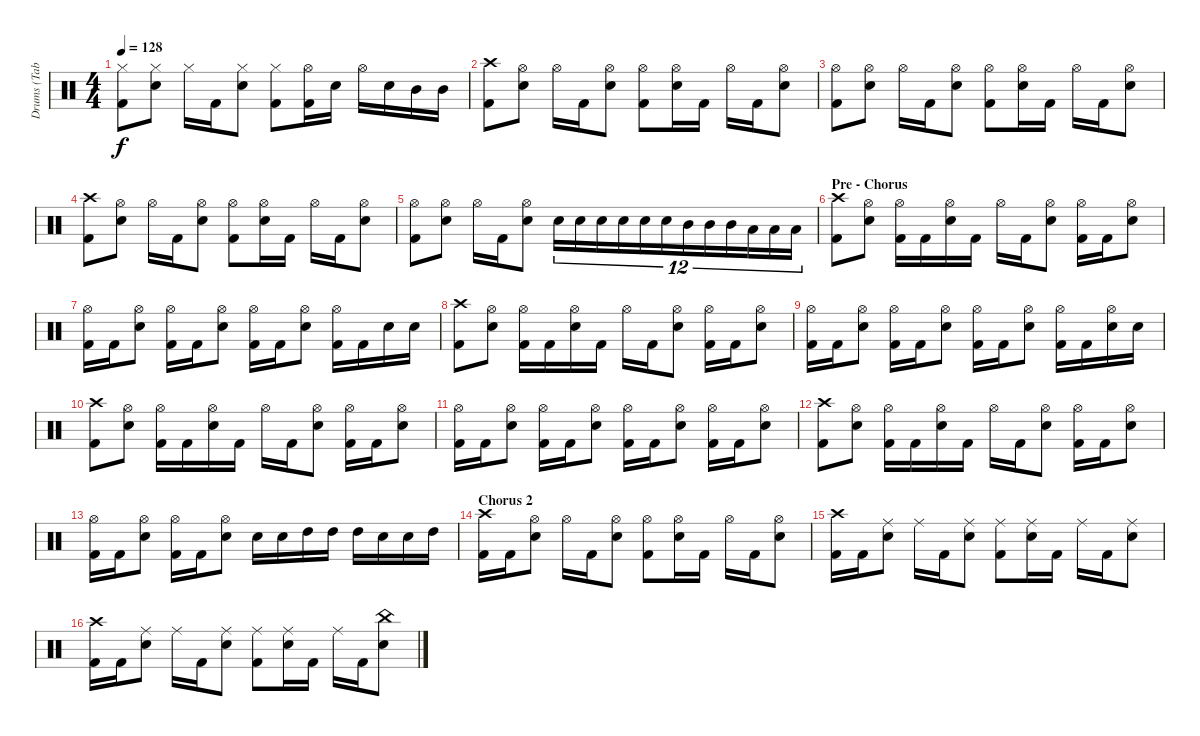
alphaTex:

\track ("Drums (Tabbed by: Leonardo_codev)" "Drums (Tab") {instrument percussion}
\staff {score}
\articulation defaults
\ts (4 4)
\tempo 128
\clef neutral
\ks c
("Hi-Hat (closed)" "Kick (hit) 2").8{dy f} ("Hi-Hat (closed)" "Electric Snare (hit)").8 "Hi-Hat (closed)".16 "Kick (hit) 2".16 ("Hi-Hat (closed)" "Electric Snare (hit)").8 ("Hi-Hat (closed)" "Kick (hit) 2").8 ("Hi-Hat (open)" "Kick (hit) 2").16 "Electric Snare (hit)".16 "Hi-Hat (open)".16 "Electric Snare (hit)".16 "Mid Tom (hit)".16 "Mid Tom (hit)".16 |
("Crash high (hit)" "Kick (hit) 2").8 ("Hi-Hat (open)" "Electric Snare (hit)").8 "Hi-Hat (open)".16 "Kick (hit) 2".16 ("Hi-Hat (open)" "Electric Snare (hit)").8 ("Hi-Hat (open)" "Kick (hit) 2").8 ("Hi-Hat (open)" "Electric Snare (hit)").16 "Kick (hit) 2".16 "Hi-Hat (open)".16 "Kick (hit) 2".16 ("Hi-Hat (open)" "Electric Snare (hit)").8 |
("Hi-Hat (open)" "Kick (hit) 2").8 ("Hi-Hat (open)" "Electric Snare (hit)").8 "Hi-Hat (open)".16 "Kick (hit) 2".16 ("Hi-Hat (open)" "Electric Snare (hit)").8 ("Hi-Hat (open)" "Kick (hit) 2").8 ("Hi-Hat (open)" "Electric Snare (hit)").16 "Kick (hit) 2".16 "Hi-Hat (open)".16 "Kick (hit) 2".16 ("Hi-Hat (open)" "Electric Snare (hit)").8 |
("Crash high (hit)" "Kick (hit) 2").8 ("Hi-Hat (open)" "Electric Snare (hit)").8 "Hi-Hat (open)".16 "Kick (hit) 2".16 ("Hi-Hat (open)" "Electric Snare (hit)").8 ("Hi-Hat (open)" "Kick (hit) 2").8 ("Hi-Hat (open)" "Electric Snare (hit)").16 "Kick (hit) 2".16 "Hi-Hat (open)".16 "Kick (hit) 2".16 ("Hi-Hat (open)" "Electric Snare (hit)").8 |
("Hi-Hat (open)" "Kick (hit) 2").8 ("Hi-Hat (open)" "Electric Snare (hit)").8 "Hi-Hat (open)".16 "Kick (hit) 2".16 ("Hi-Hat (open)" "Electric Snare (hit)").8 "Electric Snare (hit)".16{tu (12 8)} "Electric Snare (hit)".16{tu (12 8)} "Electric Snare (hit)".16{tu (12 8)} "Electric Snare (hit)".16{tu (12 8)} "Electric Snare (hit)".16{tu (12 8)} "Electric Snare (hit)".16{tu (12 8)} "Mid Tom (hit)".16{tu (12 8)} "Mid Tom (hit)".16{tu (12 8)} "Mid Tom (hit)".16{tu (12 8)} "Low Tom (hit)".16{tu (12 8)} "Low Tom (hit)".16{tu (12 8)} "Low Tom (hit)".16{tu (12 8)} |
\section ("" "Pre - Chorus")
("Crash high (hit)" "Kick (hit) 2").8 ("Hi-Hat (open)" "Electric Snare (hit)").8 ("Hi-Hat (open)" "Kick (hit) 2").16 "Kick (hit) 2".16 ("Hi-Hat (open)" "Electric Snare (hit)").16 "Kick (hit) 2".16 "Hi-Hat (open)".16 "Kick (hit) 2".16 ("Hi-Hat (open)" "Electric Snare (hit)").8 ("Hi-Hat (open)" "Kick (hit) 2").16 "Kick (hit) 2".16 ("Hi-Hat (open)" "Electric Snare (hit)").8 |
("Hi-Hat (open)" "Kick (hit) 2").16 "Kick (hit) 2".16 ("Hi-Hat (open)" "Electric Snare (hit)").8 ("Hi-Hat (open)" "Kick (hit) 2").16 "Kick (hit) 2".16 ("Hi-Hat (open)" "Electric Snare (hit)").8 ("Hi-Hat (open)" "Kick (hit) 2").16 "Kick (hit) 2".16 ("Hi-Hat (open)" "Electric Snare (hit)").8 ("Hi-Hat (open)" "Kick (hit) 2").16 "Kick (hit) 2".16 "Electric Snare (hit)".16 "Electric Snare (hit)".16 |
("Crash high (hit)" "Kick (hit) 2").8 ("Hi-Hat (open)" "Electric Snare (hit)").8 ("Hi-Hat (open)" "Kick (hit) 2").16 "Kick (hit) 2".16 ("Hi-Hat (open)" "Electric Snare (hit)").16 "Kick (hit) 2".16 "Hi-Hat (open)".16 "Kick (hit) 2".16 ("Hi-Hat (open)" "Electric Snare (hit)").8 ("Hi-Hat (open)" "Kick (hit) 2").16 "Kick (hit) 2".16 ("Hi-Hat (open)" "Electric Snare (hit)").8 |
("Hi-Hat (open)" "Kick (hit) 2").16 "Kick (hit) 2".16 ("Hi-Hat (open)" "Electric Snare (hit)").8 ("Hi-Hat (open)" "Kick (hit) 2").16 "Kick (hit) 2".16 ("Hi-Hat (open)" "Electric Snare (hit)").8 ("Hi-Hat (open)" "Kick (hit) 2").16 "Kick (hit) 2".16 ("Hi-Hat (open)" "Electric Snare (hit)").8 ("Hi-Hat (open)" "Kick (hit) 2").16 "Kick (hit) 2".16 ("Hi-Hat (open)" "Electric Snare (hit)").16 "Electric Snare (hit)".16 |
("Crash high (hit)" "Kick (hit) 2").8 ("Hi-Hat (open)" "Electric Snare (hit)").8 ("Hi-Hat (open)" "Kick (hit) 2").16 "Kick (hit) 2".16 ("Hi-Hat (open)" "Electric Snare (hit)").16 "Kick (hit) 2".16 "Hi-Hat (open)".16 "Kick (hit) 2".16 ("Hi-Hat (open)" "Electric Snare (hit)").8 ("Hi-Hat (open)" "Kick (hit) 2").16 "Kick (hit) 2".16 ("Hi-Hat (open)" "Electric Snare (hit)").8 |
("Hi-Hat (open)" "Kick (hit) 2").16 "Kick (hit) 2".16 ("Hi-Hat (open)" "Electric Snare (hit)").8 ("Hi-Hat (open)" "Kick (hit) 2").16 "Kick (hit) 2".16 ("Hi-Hat (open)" "Electric Snare (hit)").8 ("Hi-Hat (open)" "Kick (hit) 2").16 "Kick (hit) 2".16 ("Hi-Hat (open)" "Electric Snare (hit)").8 ("Hi-Hat (open)" "Kick (hit) 2").16 "Kick (hit) 2".16 ("Hi-Hat (open)" "Electric Snare (hit)").8 |
("Crash high (hit)" "Kick (hit) 2").8 ("Hi-Hat (open)" "Electric Snare (hit)").8 ("Hi-Hat (open)" "Kick (hit) 2").16 "Kick (hit) 2".16 ("Hi-Hat (open)" "Electric Snare (hit)").16 "Kick (hit) 2".16 "Hi-Hat (open)".16 "Kick (hit) 2".16 ("Hi-Hat (open)" "Electric Snare (hit)").8 ("Hi-Hat (open)" "Kick (hit) 2").16 "Kick (hit) 2".16 ("Hi-Hat (open)" "Electric Snare (hit)").8 |
("Hi-Hat (open)" "Kick (hit) 2").16 "Kick (hit) 2".16 ("Hi-Hat (open)" "Electric Snare (hit)").8 ("Hi-Hat (open)" "Kick (hit) 2").16 "Kick (hit) 2".16 ("Hi-Hat (open)" "Electric Snare (hit)").8 "Electric Snare (hit)".16 "Electric Snare (hit)".16 "High Tom (hit)".16 "High Tom (hit)".16 "High Tom (hit)".16 "Electric Snare (hit)".16 "Electric Snare (hit)".16 "High Tom (hit)".16 |
\section ("" "Chorus 2")
("Crash high (hit)" "Kick (hit) 2").16 "Kick (hit) 2".16 ("Hi-Hat (open)" "Electric Snare (hit)").8 "Hi-Hat (open)".16 "Kick (hit) 2".16 ("Hi-Hat (open)" "Electric Snare (hit)").8 ("Hi-Hat (open)" "Kick (hit) 2").8 ("Hi-Hat (open)" "Electric Snare (hit)").16 "Kick (hit) 2".16 "Hi-Hat (open)".16 "Kick (hit) 2".16 ("Hi-Hat (open)" "Electric Snare (hit)").8 |
("Crash high (hit)" "Kick (hit) 2").16 "Kick (hit) 2".16 ("Ride (middle)" "Electric Snare (hit)").8 "Ride (middle)".16 "Kick (hit) 2".16 ("Ride (middle)" "Electric Snare (hit)").8 ("Ride (middle)" "Kick (hit) 2").8 ("Ride (middle)" "Electric Snare (hit)").16 "Kick (hit) 2".16 "Ride (middle)".16 "Kick (hit) 2".16 ("Ride (middle)" "Electric Snare (hit)").8 |
("Crash high (hit)" "Kick (hit) 2").16 "Kick (hit) 2".16 ("Ride (middle)" "Electric Snare (hit)").8 "Ride (middle)".16 "Kick (hit) 2".16 ("Ride (middle)" "Electric Snare (hit)").8 ("Ride (middle)" "Kick (hit) 2").8 ("Ride (middle)" "Electric Snare (hit)").16 "Kick (hit) 2".16 "Ride (middle)".16 "Kick (hit) 2".16 ("China (hit)" "Electric Snare (hit)").8
